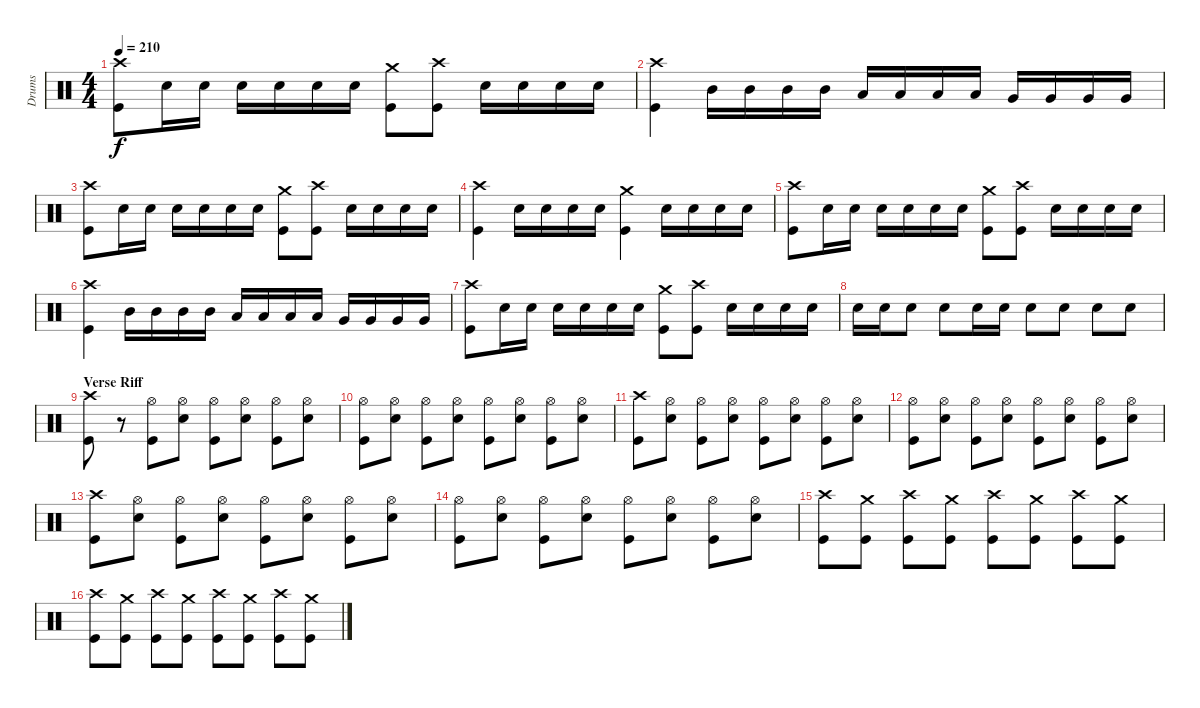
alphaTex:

\track ("Drums" "Drums") {instrument percussion}
\staff {score}
\articulation defaults
\ts (4 4)
\tempo 210
\clef neutral
\ks c
("Crash high (hit)" "Kick (hit)").8{dy f} "Snare (hit) 2".16 "Snare (hit) 2".16 "Snare (hit) 2".16 "Snare (hit) 2".16 "Snare (hit) 2".16 "Snare (hit) 2".16 ("Crash medium (hit)" "Kick (hit)").8 ("Crash high (hit)" "Kick (hit)").8 "Snare (hit) 2".16 "Snare (hit) 2".16 "Snare (hit) 2".16 "Snare (hit) 2".16 |
("Crash high (hit)" "Kick (hit)").4 "Mid Tom (hit)".16 "Mid Tom (hit)".16 "Mid Tom (hit)".16 "Mid Tom (hit)".16 "Low Tom (hit)".16 "Low Tom (hit)".16 "Low Tom (hit)".16 "Low Tom (hit)".16 "Very Low Tom (hit)".16 "Very Low Tom (hit)".16 "Very Low Tom (hit)".16 "Very Low Tom (hit)".16 |
("Crash high (hit)" "Kick (hit)").8 "Snare (hit) 2".16 "Snare (hit) 2".16 "Snare (hit) 2".16 "Snare (hit) 2".16 "Snare (hit) 2".16 "Snare (hit) 2".16 ("Crash medium (hit)" "Kick (hit)").8 ("Crash high (hit)" "Kick (hit)").8 "Snare (hit) 2".16 "Snare (hit) 2".16 "Snare (hit) 2".16 "Snare (hit) 2".16 |
("Crash high (hit)" "Kick (hit)").4 "Snare (hit) 2".16 "Snare (hit) 2".16 "Snare (hit) 2".16 "Snare (hit) 2".16 ("Crash medium (hit)" "Kick (hit)").4 "Snare (hit) 2".16 "Snare (hit) 2".16 "Snare (hit) 2".16 "Snare (hit) 2".16 |
("Crash high (hit)" "Kick (hit)").8 "Snare (hit) 2".16 "Snare (hit) 2".16 "Snare (hit) 2".16 "Snare (hit) 2".16 "Snare (hit) 2".16 "Snare (hit) 2".16 ("Crash medium (hit)" "Kick (hit)").8 ("Crash high (hit)" "Kick (hit)").8 "Snare (hit) 2".16 "Snare (hit) 2".16 "Snare (hit) 2".16 "Snare (hit) 2".16 |
("Crash high (hit)" "Kick (hit)").4 "Mid Tom (hit)".16 "Mid Tom (hit)".16 "Mid Tom (hit)".16 "Mid Tom (hit)".16 "Low Tom (hit)".16 "Low Tom (hit)".16 "Low Tom (hit)".16 "Low Tom (hit)".16 "Very Low Tom (hit)".16 "Very Low Tom (hit)".16 "Very Low Tom (hit)".16 "Very Low Tom (hit)".16 |
("Crash high (hit)" "Kick (hit)").8 "Snare (hit) 2".16 "Snare (hit) 2".16 "Snare (hit) 2".16 "Snare (hit) 2".16 "Snare (hit) 2".16 "Snare (hit) 2".16 ("Crash medium (hit)" "Kick (hit)").8 ("Crash high (hit)" "Kick (hit)").8 "Snare (hit) 2".16 "Snare (hit) 2".16 "Snare (hit) 2".16 "Snare (hit) 2".16 |
"Snare (hit) 2".16 "Snare (hit) 2".16 "Snare (hit) 2".8 "Snare (hit) 2".8 "Snare (hit) 2".16 "Snare (hit) 2".16 "Snare (hit) 2".8 "Snare (hit) 2".8 "Snare (hit) 2".8 "Snare (hit) 2".8 |
\section ("" "Verse Riff")
("Crash high (hit)" "Kick (hit)").8 r.8 ("Hi-Hat (open)" "Kick (hit)").8 ("Hi-Hat (open)" "Snare (hit) 2").8 ("Hi-Hat (open)" "Kick (hit)").8 ("Hi-Hat (open)" "Snare (hit) 2").8 ("Hi-Hat (open)" "Kick (hit)").8 ("Hi-Hat (open)" "Snare (hit) 2").8 |
("Hi-Hat (open)" "Kick (hit)").8 ("Hi-Hat (open)" "Snare (hit) 2").8 ("Hi-Hat (open)" "Kick (hit)").8 ("Hi-Hat (open)" "Snare (hit) 2").8 ("Hi-Hat (open)" "Kick (hit)").8 ("Hi-Hat (open)" "Snare (hit) 2").8 ("Hi-Hat (open)" "Kick (hit)").8 ("Hi-Hat (open)" "Snare (hit) 2").8 |
("Crash high (hit)" "Kick (hit)").8 ("Hi-Hat (open)" "Snare (hit) 2").8 ("Hi-Hat (open)" "Kick (hit)").8 ("Hi-Hat (open)" "Snare (hit) 2").8 ("Hi-Hat (open)" "Kick (hit)").8 ("Hi-Hat (open)" "Snare (hit) 2").8 ("Hi-Hat (open)" "Kick (hit)").8 ("Hi-Hat (open)" "Snare (hit) 2").8 |
("Hi-Hat (open)" "Kick (hit)").8 ("Hi-Hat (open)" "Snare (hit) 2").8 ("Hi-Hat (open)" "Kick (hit)").8 ("Hi-Hat (open)" "Snare (hit) 2").8 ("Hi-Hat (open)" "Kick (hit)").8 ("Hi-Hat (open)" "Snare (hit) 2").8 ("Hi-Hat (open)" "Kick (hit)").8 ("Hi-Hat (open)" "Snare (hit) 2").8 |
("Crash high (hit)" "Kick (hit)").8 ("Hi-Hat (open)" "Snare (hit) 2").8 ("Hi-Hat (open)" "Kick (hit)").8 ("Hi-Hat (open)" "Snare (hit) 2").8 ("Hi-Hat (open)" "Kick (hit)").8 ("Hi-Hat (open)" "Snare (hit) 2").8 ("Hi-Hat (open)" "Kick (hit)").8 ("Hi-Hat (open)" "Snare (hit) 2").8 |
("Hi-Hat (open)" "Kick (hit)").8 ("Hi-Hat (open)" "Snare (hit) 2").8 ("Hi-Hat (open)" "Kick (hit)").8 ("Hi-Hat (open)" "Snare (hit) 2").8 ("Hi-Hat (open)" "Kick (hit)").8 ("Hi-Hat (open)" "Snare (hit) 2").8 ("Hi-Hat (open)" "Kick (hit)").8 ("Hi-Hat (open)" "Snare (hit) 2").8 |
("Crash high (hit)" "Kick (hit)").8 ("Crash medium (hit)" "Kick (hit)").8 ("Crash high (hit)" "Kick (hit)").8 ("Crash medium (hit)" "Kick (hit)").8 ("Crash high (hit)" "Kick (hit)").8 ("Crash medium (hit)" "Kick (hit)").8 ("Crash high (hit)" "Kick (hit)").8 ("Crash medium (hit)" "Kick (hit)").8 |
("Crash high (hit)" "Kick (hit)").8 ("Crash medium (hit)" "Kick (hit)").8 ("Crash high (hit)" "Kick (hit)").8 ("Crash medium (hit)" "Kick (hit)").8 ("Crash high (hit)" "Kick (hit)").8 ("Crash medium (hit)" "Kick (hit)").8 ("Crash high (hit)" "Kick (hit)").8 ("Crash medium (hit)" "Kick (hit)").8
